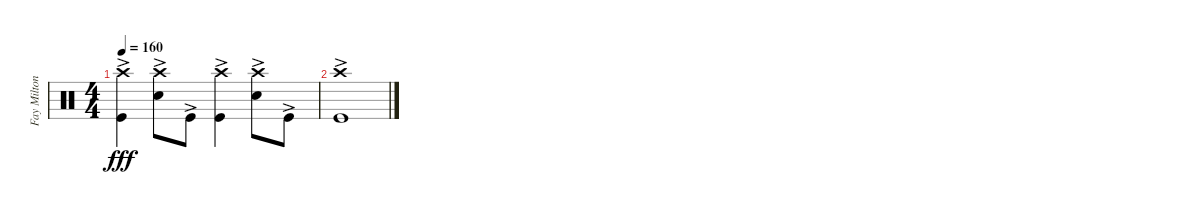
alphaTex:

\track ("Fay Milton - Drums" "Fay Milton") {instrument percussion}
\staff {score}
\articulation defaults
\ts (4 4)
\tempo 160
\clef neutral
\ks c
("Crash high (hit)"{ac} "Kick (hit)"{ac}).4{dy fff} ("Crash high (hit)"{ac} "Snare (hit) 2"{ac}).8 "Kick (hit)"{ac}.8 ("Crash high (hit)"{ac} "Kick (hit)"{ac}).4 ("Crash high (hit)"{ac} "Snare (hit) 2"{ac}).8 "Kick (hit)"{ac}.8 |
("Crash high (hit)"{ac} "Kick (hit)"{ac}).1
